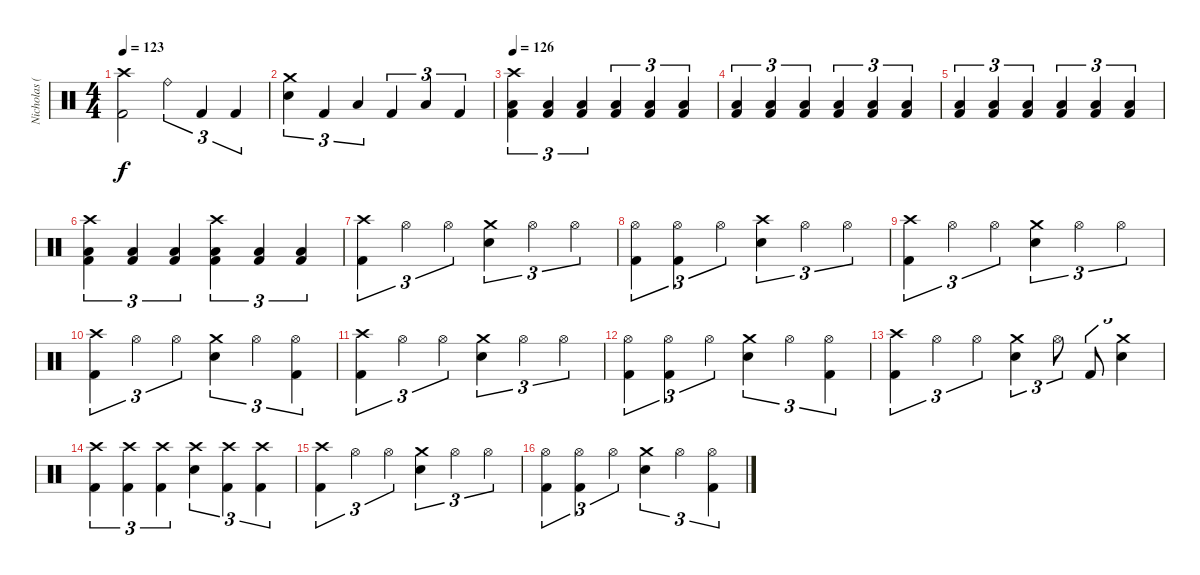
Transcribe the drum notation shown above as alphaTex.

\track ("Nicholas (Drums)" "Nicholas (") {instrument percussion}
\staff {score}
\articulation defaults
\ts (4 4)
\tempo 123
\clef neutral
\ks c
("Crash high (hit)" "Kick (hit) 2").2{dy f} "Ride (bell)".4{tu (3 2)} "Kick (hit) 2".4{tu (3 2)} "Kick (hit) 2".4{tu (3 2)} |
("Crash medium (hit)" "Electric Snare (hit)").4{tu (3 2)} "Kick (hit) 2".4{tu (3 2)} "Low Tom (hit)".4{tu (3 2)} "Kick (hit) 2".4{tu (3 2)} "Low Tom (hit)".4{tu (3 2)} "Kick (hit) 2".4{tu (3 2)} |
\tempo 126
("Crash high (hit)" "Low Tom (hit)" "Kick (hit) 2").4{tu (3 2)} ("Low Tom (hit)" "Kick (hit) 2").4{tu (3 2)} ("Low Tom (hit)" "Kick (hit) 2").4{tu (3 2)} ("Low Tom (hit)" "Kick (hit) 2").4{tu (3 2)} ("Low Tom (hit)" "Kick (hit) 2").4{tu (3 2)} ("Low Tom (hit)" "Kick (hit) 2").4{tu (3 2)} |
("Low Tom (hit)" "Kick (hit) 2").4{tu (3 2)} ("Low Tom (hit)" "Kick (hit) 2").4{tu (3 2)} ("Low Tom (hit)" "Kick (hit) 2").4{tu (3 2)} ("Low Tom (hit)" "Kick (hit) 2").4{tu (3 2)} ("Low Tom (hit)" "Kick (hit) 2").4{tu (3 2)} ("Low Tom (hit)" "Kick (hit) 2").4{tu (3 2)} |
("Low Tom (hit)" "Kick (hit) 2").4{tu (3 2)} ("Low Tom (hit)" "Kick (hit) 2").4{tu (3 2)} ("Low Tom (hit)" "Kick (hit) 2").4{tu (3 2)} ("Low Tom (hit)" "Kick (hit) 2").4{tu (3 2)} ("Low Tom (hit)" "Kick (hit) 2").4{tu (3 2)} ("Low Tom (hit)" "Kick (hit) 2").4{tu (3 2)} |
("Crash high (hit)" "Low Tom (hit)" "Kick (hit) 2").4{tu (3 2)} ("Low Tom (hit)" "Kick (hit) 2").4{tu (3 2)} ("Low Tom (hit)" "Kick (hit) 2").4{tu (3 2)} ("Crash high (hit)" "Low Tom (hit)" "Kick (hit) 2").4{tu (3 2)} ("Low Tom (hit)" "Kick (hit) 2").4{tu (3 2)} ("Low Tom (hit)" "Kick (hit) 2").4{tu (3 2)} |
("Crash high (hit)" "Kick (hit) 2").4{tu (3 2)} "Hi-Hat (open)".4{tu (3 2)} "Hi-Hat (open)".4{tu (3 2)} ("Crash medium (hit)" "Electric Snare (hit)").4{tu (3 2)} "Hi-Hat (open)".4{tu (3 2)} "Hi-Hat (open)".4{tu (3 2)} |
("Hi-Hat (open)" "Kick (hit) 2").4{tu (3 2)} ("Hi-Hat (open)" "Kick (hit) 2").4{tu (3 2)} "Hi-Hat (open)".4{tu (3 2)} ("Crash high (hit)" "Electric Snare (hit)").4{tu (3 2)} "Hi-Hat (open)".4{tu (3 2)} "Hi-Hat (open)".4{tu (3 2)} |
("Crash high (hit)" "Kick (hit) 2").4{tu (3 2)} "Hi-Hat (open)".4{tu (3 2)} "Hi-Hat (open)".4{tu (3 2)} ("Crash medium (hit)" "Electric Snare (hit)").4{tu (3 2)} "Hi-Hat (open)".4{tu (3 2)} "Hi-Hat (open)".4{tu (3 2)} |
("Crash high (hit)" "Kick (hit) 2").4{tu (3 2)} "Hi-Hat (open)".4{tu (3 2)} "Hi-Hat (open)".4{tu (3 2)} ("Crash medium (hit)" "Electric Snare (hit)").4{tu (3 2)} "Hi-Hat (open)".4{tu (3 2)} ("Hi-Hat (open)" "Kick (hit) 2").4{tu (3 2)} |
("Crash high (hit)" "Kick (hit) 2").4{tu (3 2)} "Hi-Hat (open)".4{tu (3 2)} "Hi-Hat (open)".4{tu (3 2)} ("Crash medium (hit)" "Electric Snare (hit)").4{tu (3 2)} "Hi-Hat (open)".4{tu (3 2)} "Hi-Hat (open)".4{tu (3 2)} |
("Hi-Hat (open)" "Kick (hit) 2").4{tu (3 2)} ("Hi-Hat (open)" "Kick (hit) 2").4{tu (3 2)} "Hi-Hat (open)".4{tu (3 2)} ("Crash medium (hit)" "Electric Snare (hit)").4{tu (3 2)} "Hi-Hat (open)".4{tu (3 2)} ("Hi-Hat (open)" "Kick (hit) 2").4{tu (3 2)} |
("Crash high (hit)" "Kick (hit) 2").4{tu (3 2)} "Hi-Hat (open)".4{tu (3 2)} "Hi-Hat (open)".4{tu (3 2)} ("Crash medium (hit)" "Electric Snare (hit)").4{tu (3 2)} "Hi-Hat (open)".8{tu (3 2)} "Kick (hit) 2".8{tu (3 2)} ("Crash medium (hit)" "Electric Snare (hit)").4{tu (3 2)} |
("Crash high (hit)" "Kick (hit) 2").4{tu (3 2)} ("Crash high (hit)" "Kick (hit) 2").4{tu (3 2)} ("Crash high (hit)" "Kick (hit) 2").4{tu (3 2)} ("Crash high (hit)" "Electric Snare (hit)").4{tu (3 2)} ("Crash high (hit)" "Kick (hit) 2").4{tu (3 2)} ("Crash high (hit)" "Kick (hit) 2").4{tu (3 2)} |
("Crash high (hit)" "Kick (hit) 2").4{tu (3 2)} "Hi-Hat (open)".4{tu (3 2)} "Hi-Hat (open)".4{tu (3 2)} ("Crash medium (hit)" "Electric Snare (hit)").4{tu (3 2)} "Hi-Hat (open)".4{tu (3 2)} "Hi-Hat (open)".4{tu (3 2)} |
("Hi-Hat (open)" "Kick (hit) 2").4{tu (3 2)} ("Hi-Hat (open)" "Kick (hit) 2").4{tu (3 2)} "Hi-Hat (open)".4{tu (3 2)} ("Crash medium (hit)" "Electric Snare (hit)").4{tu (3 2)} "Hi-Hat (open)".4{tu (3 2)} ("Hi-Hat (open)" "Kick (hit) 2").4{tu (3 2)}
